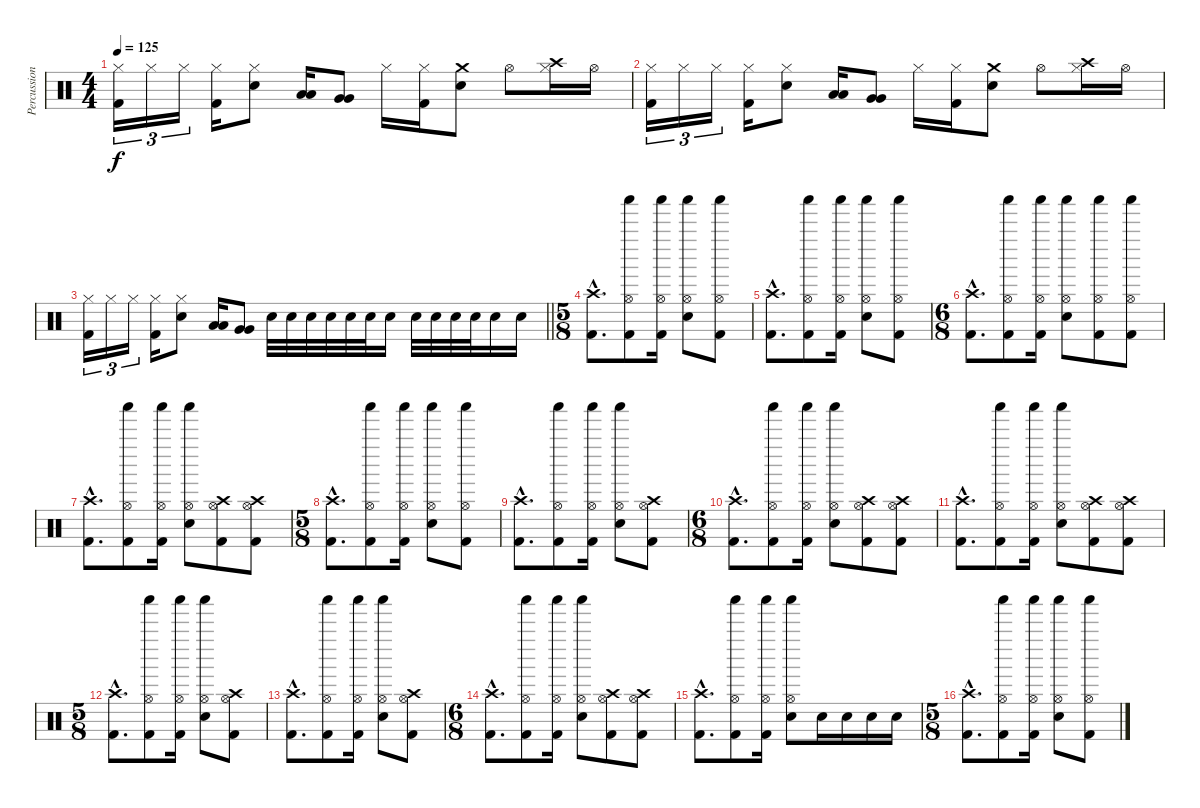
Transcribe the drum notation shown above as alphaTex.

\track ("Percussion" "Percussion") {instrument percussion}
\staff {score}
\articulation defaults
\ts (4 4)
\tempo 125
\clef neutral
\ks c
("Hi-Hat (closed)" "Kick (hit) 2").16{tu (3 2) dy f} "Hi-Hat (closed)".16{tu (3 2)} "Hi-Hat (closed)".16{tu (3 2)} ("Hi-Hat (closed)" "Kick (hit) 2").16 ("Hi-Hat (closed)" "Electric Snare (hit)").8 ("Low Tom (hit)" "Low Tom (hit)").16 ("Very Low Tom (hit)" "Very Low Tom (hit)").8 "Hi-Hat (closed)".16 ("Hi-Hat (closed)" "Kick (hit) 2").16 ("Crash medium (hit)" "Electric Snare (hit)").8 "Hi-Hat (open)".8 ("Crash high (hit)" "Hi-Hat (closed)").16 "Hi-Hat (open)".16 |
("Hi-Hat (closed)" "Kick (hit) 2").16{tu (3 2)} "Hi-Hat (closed)".16{tu (3 2)} "Hi-Hat (closed)".16{tu (3 2)} ("Hi-Hat (closed)" "Kick (hit) 2").16 ("Hi-Hat (closed)" "Electric Snare (hit)").8 ("Low Tom (hit)" "Low Tom (hit)").16 ("Very Low Tom (hit)" "Very Low Tom (hit)").8 "Hi-Hat (closed)".16 ("Hi-Hat (closed)" "Kick (hit) 2").16 ("Crash medium (hit)" "Electric Snare (hit)").8 "Hi-Hat (open)".8 ("Crash high (hit)" "Hi-Hat (closed)").16 "Hi-Hat (open)".16 |
\barLineRight lightlight
("Hi-Hat (closed)" "Kick (hit) 2").16{tu (3 2)} "Hi-Hat (closed)".16{tu (3 2)} "Hi-Hat (closed)".16{tu (3 2)} ("Hi-Hat (closed)" "Kick (hit) 2").16 ("Hi-Hat (closed)" "Electric Snare (hit)").8 ("Low Tom (hit)" "Low Tom (hit)").16 ("Very Low Tom (hit)" "Very Low Tom (hit)").8 "Electric Snare (hit)".32 "Electric Snare (hit)".32 "Electric Snare (hit)".32 "Electric Snare (hit)".32 "Electric Snare (hit)".32 "Electric Snare (hit)".32 "Electric Snare (hit)".16 "Electric Snare (hit)".32 "Electric Snare (hit)".32 "Electric Snare (hit)".32 "Electric Snare (hit)".32 "Electric Snare (hit)".16 "Electric Snare (hit)".16 |
\ts (5 8)
("Crash high (hit)"{hac} "Kick (hit) 2"{hac}).8{d} ("Shaker (hit)" "Hi-Hat (open)" "Kick (hit) 2").8 ("Shaker (hit)" "Hi-Hat (open)" "Kick (hit) 2").16 ("Shaker (hit)" "Hi-Hat (open)" "Electric Snare (hit)").8 ("Shaker (hit)" "Hi-Hat (open)" "Kick (hit) 2").8 |
("Crash high (hit)"{hac} "Kick (hit) 2"{hac}).8{d} ("Shaker (hit)" "Hi-Hat (open)" "Kick (hit) 2").8 ("Shaker (hit)" "Hi-Hat (open)" "Kick (hit) 2").16 ("Shaker (hit)" "Hi-Hat (open)" "Electric Snare (hit)").8 ("Shaker (hit)" "Hi-Hat (open)" "Kick (hit) 2").8 |
\ts (6 8)
("Crash high (hit)"{hac} "Kick (hit) 2"{hac}).8{d} ("Shaker (hit)" "Hi-Hat (open)" "Kick (hit) 2").8 ("Shaker (hit)" "Hi-Hat (open)" "Kick (hit) 2").16 ("Shaker (hit)" "Hi-Hat (open)" "Electric Snare (hit)").8 ("Shaker (hit)" "Hi-Hat (open)" "Kick (hit) 2").8 ("Shaker (hit)" "Hi-Hat (open)" "Kick (hit) 2").8 |
("Crash high (hit)"{hac} "Kick (hit) 2"{hac}).8{d} ("Shaker (hit)" "Hi-Hat (open)" "Kick (hit) 2").8 ("Shaker (hit)" "Hi-Hat (open)" "Kick (hit) 2").16 ("Shaker (hit)" "Hi-Hat (open)" "Electric Snare (hit)").8 ("Crash high (hit)" "Hi-Hat (open)" "Kick (hit) 2").8 ("Crash high (hit)" "Hi-Hat (open)" "Kick (hit) 2").8 |
\ts (5 8)
("Crash high (hit)"{hac} "Kick (hit) 2"{hac}).8{d} ("Shaker (hit)" "Hi-Hat (open)" "Kick (hit) 2").8 ("Shaker (hit)" "Hi-Hat (open)" "Kick (hit) 2").16 ("Shaker (hit)" "Hi-Hat (open)" "Electric Snare (hit)").8 ("Shaker (hit)" "Hi-Hat (open)" "Kick (hit) 2").8 |
("Crash high (hit)"{hac} "Kick (hit) 2"{hac}).8{d} ("Shaker (hit)" "Hi-Hat (open)" "Kick (hit) 2").8 ("Shaker (hit)" "Hi-Hat (open)" "Kick (hit) 2").16 ("Shaker (hit)" "Hi-Hat (open)" "Electric Snare (hit)").8 ("Crash high (hit)" "Hi-Hat (open)" "Kick (hit) 2").8 |
\ts (6 8)
("Crash high (hit)"{hac} "Kick (hit) 2"{hac}).8{d} ("Shaker (hit)" "Hi-Hat (open)" "Kick (hit) 2").8 ("Shaker (hit)" "Hi-Hat (open)" "Kick (hit) 2").16 ("Shaker (hit)" "Hi-Hat (open)" "Electric Snare (hit)").8 ("Crash high (hit)" "Hi-Hat (open)" "Kick (hit) 2").8 ("Crash high (hit)" "Hi-Hat (open)" "Kick (hit) 2").8 |
("Crash high (hit)"{hac} "Kick (hit) 2"{hac}).8{d} ("Shaker (hit)" "Hi-Hat (open)" "Kick (hit) 2").8 ("Shaker (hit)" "Hi-Hat (open)" "Kick (hit) 2").16 ("Shaker (hit)" "Hi-Hat (open)" "Electric Snare (hit)").8 ("Crash high (hit)" "Hi-Hat (open)" "Kick (hit) 2").8 ("Crash high (hit)" "Hi-Hat (open)" "Kick (hit) 2").8 |
\ts (5 8)
("Crash high (hit)"{hac} "Kick (hit) 2"{hac}).8{d} ("Shaker (hit)" "Hi-Hat (open)" "Kick (hit) 2").8 ("Shaker (hit)" "Hi-Hat (open)" "Kick (hit) 2").16 ("Shaker (hit)" "Hi-Hat (open)" "Electric Snare (hit)").8 ("Crash high (hit)" "Hi-Hat (open)" "Kick (hit) 2").8 |
("Crash high (hit)"{hac} "Kick (hit) 2"{hac}).8{d} ("Shaker (hit)" "Hi-Hat (open)" "Kick (hit) 2").8 ("Shaker (hit)" "Hi-Hat (open)" "Kick (hit) 2").16 ("Shaker (hit)" "Hi-Hat (open)" "Electric Snare (hit)").8 ("Crash high (hit)" "Hi-Hat (open)" "Kick (hit) 2").8 |
\ts (6 8)
("Crash high (hit)"{hac} "Kick (hit) 2"{hac}).8{d} ("Shaker (hit)" "Hi-Hat (open)" "Kick (hit) 2").8 ("Shaker (hit)" "Hi-Hat (open)" "Kick (hit) 2").16 ("Shaker (hit)" "Hi-Hat (open)" "Electric Snare (hit)").8 ("Crash high (hit)" "Hi-Hat (open)" "Kick (hit) 2").8 ("Crash high (hit)" "Hi-Hat (open)" "Kick (hit) 2").8 |
("Crash high (hit)"{hac} "Kick (hit) 2"{hac}).8{d} ("Shaker (hit)" "Hi-Hat (open)" "Kick (hit) 2").8 ("Shaker (hit)" "Hi-Hat (open)" "Kick (hit) 2").16 ("Shaker (hit)" "Hi-Hat (open)" "Electric Snare (hit)").8 "Electric Snare (hit)".16 "Electric Snare (hit)".16 "Electric Snare (hit)".16 "Electric Snare (hit)".16 |
\ts (5 8)
("Crash high (hit)"{hac} "Kick (hit) 2"{hac}).8{d} ("Shaker (hit)" "Hi-Hat (open)" "Kick (hit) 2").8 ("Shaker (hit)" "Hi-Hat (open)" "Kick (hit) 2").16 ("Shaker (hit)" "Hi-Hat (open)" "Electric Snare (hit)").8 ("Shaker (hit)" "Hi-Hat (open)" "Kick (hit) 2").8
